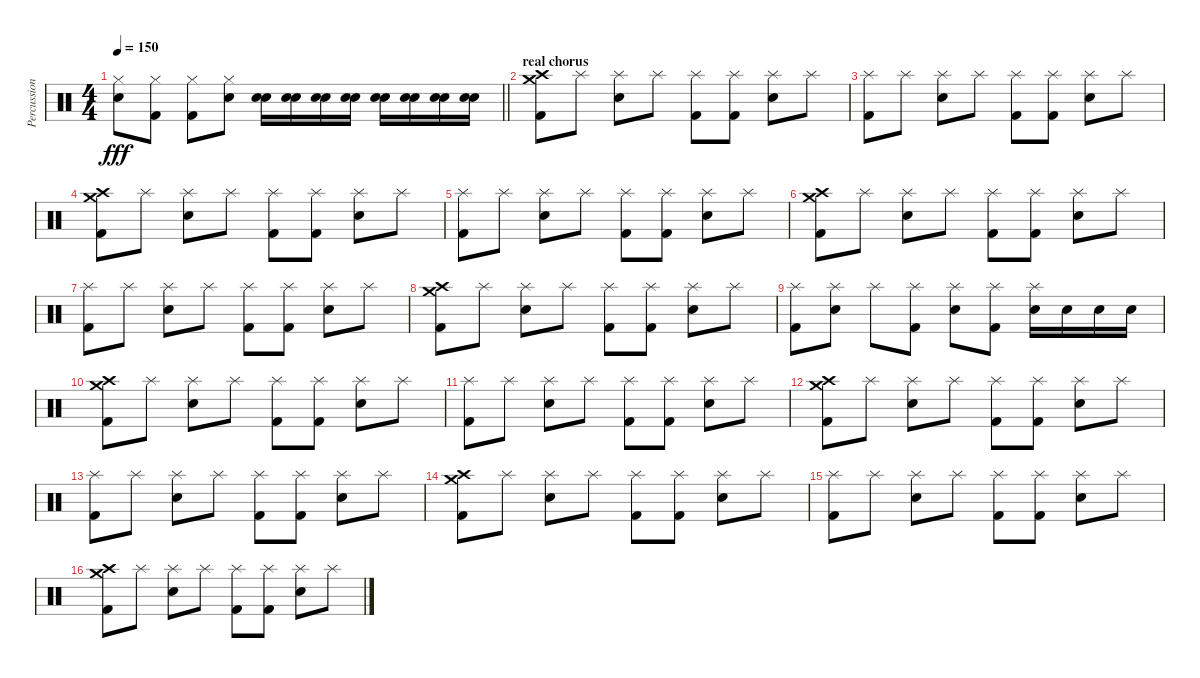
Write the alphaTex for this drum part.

\track ("Percussion" "Percussion") {instrument percussion}
\staff {score}
\articulation defaults
\ts (4 4)
\tempo 150
\clef neutral
\barLineRight lightlight
\ks c
("Hi-Hat (closed)" "Electric Snare (hit)").8{dy fff} ("Hi-Hat (closed)" "Kick (hit) 2").8 ("Hi-Hat (closed)" "Kick (hit) 2").8 ("Hi-Hat (closed)" "Electric Snare (hit)").8 ("Electric Snare (hit)" "Electric Snare (hit)").16 ("Electric Snare (hit)" "Electric Snare (hit)").16 ("Electric Snare (hit)" "Electric Snare (hit)").16 ("Electric Snare (hit)" "Electric Snare (hit)").16 ("Electric Snare (hit)" "Electric Snare (hit)").16 ("Electric Snare (hit)" "Electric Snare (hit)").16 ("Electric Snare (hit)" "Electric Snare (hit)").16 ("Electric Snare (hit)" "Electric Snare (hit)").16 |
\section ("" "real chorus")
("Crash high (hit)" "Kick (hit) 2" "Crash medium (hit)").8 "Splash (hit)".8 ("Splash (hit)" "Electric Snare (hit)").8 "Splash (hit)".8 ("Splash (hit)" "Kick (hit) 2").8 ("Splash (hit)" "Kick (hit) 2").8 ("Splash (hit)" "Electric Snare (hit)").8 "Splash (hit)".8 |
("Splash (hit)" "Kick (hit) 2").8 "Splash (hit)".8 ("Splash (hit)" "Electric Snare (hit)").8 "Splash (hit)".8 ("Splash (hit)" "Kick (hit) 2").8 ("Splash (hit)" "Kick (hit) 2").8 ("Splash (hit)" "Electric Snare (hit)").8 "Splash (hit)".8 |
("Crash high (hit)" "Kick (hit) 2" "Crash medium (hit)").8 "Splash (hit)".8 ("Splash (hit)" "Electric Snare (hit)").8 "Splash (hit)".8 ("Splash (hit)" "Kick (hit) 2").8 ("Splash (hit)" "Kick (hit) 2").8 ("Splash (hit)" "Electric Snare (hit)").8 "Splash (hit)".8 |
("Splash (hit)" "Kick (hit) 2").8 "Splash (hit)".8 ("Splash (hit)" "Electric Snare (hit)").8 "Splash (hit)".8 ("Splash (hit)" "Kick (hit) 2").8 ("Splash (hit)" "Kick (hit) 2").8 ("Splash (hit)" "Electric Snare (hit)").8 "Splash (hit)".8 |
("Crash high (hit)" "Kick (hit) 2" "Crash medium (hit)").8 "Splash (hit)".8 ("Splash (hit)" "Electric Snare (hit)").8 "Splash (hit)".8 ("Splash (hit)" "Kick (hit) 2").8 ("Splash (hit)" "Kick (hit) 2").8 ("Splash (hit)" "Electric Snare (hit)").8 "Splash (hit)".8 |
("Splash (hit)" "Kick (hit) 2").8 "Splash (hit)".8 ("Splash (hit)" "Electric Snare (hit)").8 "Splash (hit)".8 ("Splash (hit)" "Kick (hit) 2").8 ("Splash (hit)" "Kick (hit) 2").8 ("Splash (hit)" "Electric Snare (hit)").8 "Splash (hit)".8 |
("Crash high (hit)" "Kick (hit) 2" "Crash medium (hit)").8 "Splash (hit)".8 ("Splash (hit)" "Electric Snare (hit)").8 "Splash (hit)".8 ("Splash (hit)" "Kick (hit) 2").8 ("Splash (hit)" "Kick (hit) 2").8 ("Splash (hit)" "Electric Snare (hit)").8 "Splash (hit)".8 |
("Splash (hit)" "Kick (hit) 2").8 ("Splash (hit)" "Electric Snare (hit)").8 "Splash (hit)".8 ("Splash (hit)" "Kick (hit) 2").8 ("Splash (hit)" "Electric Snare (hit)").8 ("Splash (hit)" "Kick (hit) 2").8 ("Splash (hit)" "Electric Snare (hit)").16 "Electric Snare (hit)".16 "Electric Snare (hit)".16 "Electric Snare (hit)".16 |
("Crash high (hit)" "Kick (hit) 2" "Crash medium (hit)").8 "Splash (hit)".8 ("Splash (hit)" "Electric Snare (hit)").8 "Splash (hit)".8 ("Splash (hit)" "Kick (hit) 2").8 ("Splash (hit)" "Kick (hit) 2").8 ("Splash (hit)" "Electric Snare (hit)").8 "Splash (hit)".8 |
("Splash (hit)" "Kick (hit) 2").8 "Splash (hit)".8 ("Splash (hit)" "Electric Snare (hit)").8 "Splash (hit)".8 ("Splash (hit)" "Kick (hit) 2").8 ("Splash (hit)" "Kick (hit) 2").8 ("Splash (hit)" "Electric Snare (hit)").8 "Splash (hit)".8 |
("Crash high (hit)" "Kick (hit) 2" "Crash medium (hit)").8 "Splash (hit)".8 ("Splash (hit)" "Electric Snare (hit)").8 "Splash (hit)".8 ("Splash (hit)" "Kick (hit) 2").8 ("Splash (hit)" "Kick (hit) 2").8 ("Splash (hit)" "Electric Snare (hit)").8 "Splash (hit)".8 |
("Splash (hit)" "Kick (hit) 2").8 "Splash (hit)".8 ("Splash (hit)" "Electric Snare (hit)").8 "Splash (hit)".8 ("Splash (hit)" "Kick (hit) 2").8 ("Splash (hit)" "Kick (hit) 2").8 ("Splash (hit)" "Electric Snare (hit)").8 "Splash (hit)".8 |
("Crash high (hit)" "Kick (hit) 2" "Crash medium (hit)").8 "Splash (hit)".8 ("Splash (hit)" "Electric Snare (hit)").8 "Splash (hit)".8 ("Splash (hit)" "Kick (hit) 2").8 ("Splash (hit)" "Kick (hit) 2").8 ("Splash (hit)" "Electric Snare (hit)").8 "Splash (hit)".8 |
("Splash (hit)" "Kick (hit) 2").8 "Splash (hit)".8 ("Splash (hit)" "Electric Snare (hit)").8 "Splash (hit)".8 ("Splash (hit)" "Kick (hit) 2").8 ("Splash (hit)" "Kick (hit) 2").8 ("Splash (hit)" "Electric Snare (hit)").8 "Splash (hit)".8 |
("Crash high (hit)" "Kick (hit) 2" "Crash medium (hit)").8 "Splash (hit)".8 ("Splash (hit)" "Electric Snare (hit)").8 "Splash (hit)".8 ("Splash (hit)" "Kick (hit) 2").8 ("Splash (hit)" "Kick (hit) 2").8 ("Splash (hit)" "Electric Snare (hit)").8 "Splash (hit)".8
